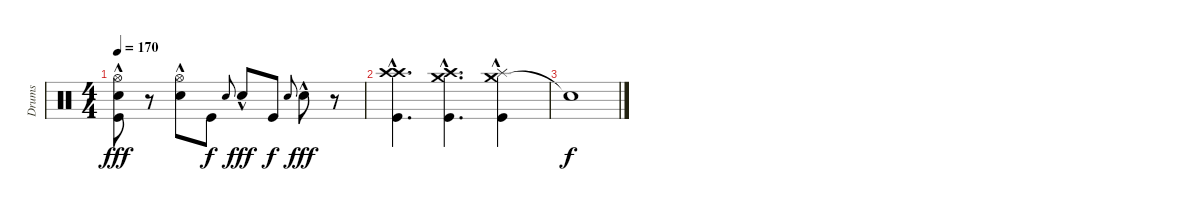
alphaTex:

\track ("Drums" "Drums") {instrument percussion}
\staff {score}
\articulation defaults
\ts (4 4)
\tempo 170
\clef neutral
\ks c
("Hi-Hat (open)" "Electric Snare (hit)"{hac} "Kick (hit)").8{dy fff} r.8 ("Hi-Hat (open)" "Electric Snare (hit)"{hac}).8 "Kick (hit)".8{dy f} "Electric Snare (hit)".8{gr onbeat} "Electric Snare (hit)"{hac}.8{dy fff} "Kick (hit)".8{dy f} "Electric Snare (hit)".8{gr onbeat} "Electric Snare (hit)"{hac}.8{dy fff} r.8 |
("Crash high (hit)"{hac} "Crash high (hit)"{hac} "Kick (hit)").4{d} ("Crash high (hit)"{hac} "Crash medium (hit)"{hac} "Kick (hit)").4{d} ("Crash medium (hit)"{hac} "Splash (hit)"{hac} "Kick (hit)").4 |
"Snare (hit)"{t}.1{dy f}
